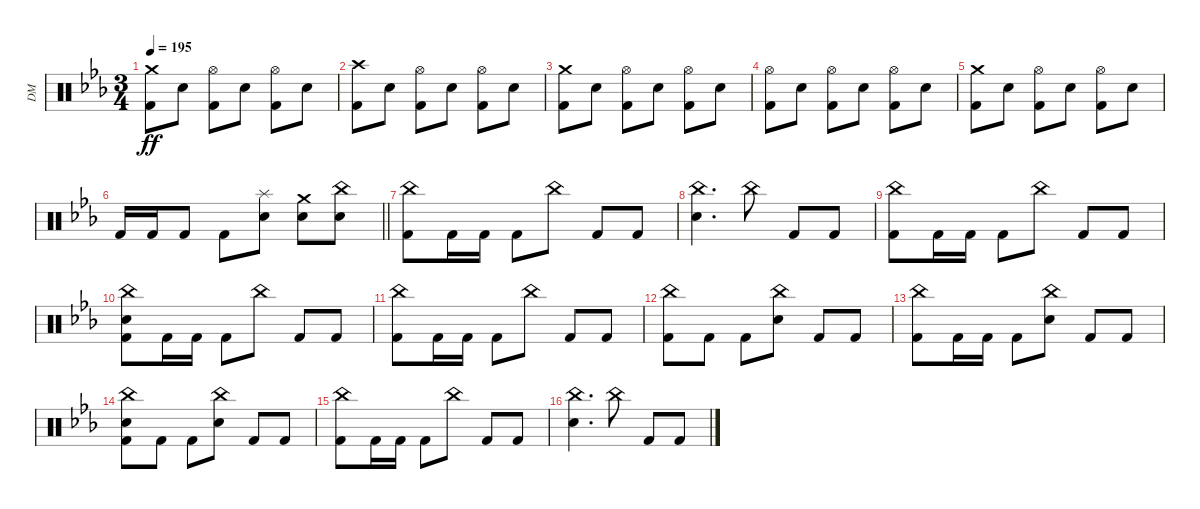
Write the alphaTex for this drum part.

\track ("DM" "DM") {instrument percussion}
\staff {score}
\articulation defaults
\ts (3 4)
\tempo 195
\clef neutral
\ks cminor
("Crash medium (hit)" "Kick (hit) 2").8{dy ff} "Electric Snare (hit)".8 ("Hi-Hat (open)" "Kick (hit) 2").8 "Electric Snare (hit)".8 ("Hi-Hat (open)" "Kick (hit) 2").8 "Electric Snare (hit)".8 |
("Crash high (hit)" "Kick (hit) 2").8 "Electric Snare (hit)".8 ("Hi-Hat (open)" "Kick (hit) 2").8 "Electric Snare (hit)".8 ("Hi-Hat (open)" "Kick (hit) 2").8 "Electric Snare (hit)".8 |
("Crash medium (hit)" "Kick (hit) 2").8 "Electric Snare (hit)".8 ("Hi-Hat (open)" "Kick (hit) 2").8 "Electric Snare (hit)".8 ("Hi-Hat (open)" "Kick (hit) 2").8 "Electric Snare (hit)".8 |
("Hi-Hat (open)" "Kick (hit) 2").8 "Electric Snare (hit)".8 ("Hi-Hat (open)" "Kick (hit) 2").8 "Electric Snare (hit)".8 ("Hi-Hat (open)" "Kick (hit) 2").8 "Electric Snare (hit)".8 |
("Crash medium (hit)" "Kick (hit) 2").8 "Electric Snare (hit)".8 ("Hi-Hat (open)" "Kick (hit) 2").8 "Electric Snare (hit)".8 ("Hi-Hat (open)" "Kick (hit) 2").8 "Electric Snare (hit)".8 |
\barLineRight lightlight "Kick (hit) 2".16 "Kick (hit) 2".16 "Kick (hit) 2".8 "Kick (hit) 2".8
("Splash (hit)" "Electric Snare (hit)").8 ("Crash medium (hit)" "Electric Snare (hit)").8 ("China (hit)" "Electric Snare (hit)").8 |
\section ("" "")
("China (hit)" "Kick (hit) 2").8 "Kick (hit) 2".16 "Kick (hit) 2".16 "Kick (hit) 2".8 "China (hit)".8 "Kick (hit) 2".8 "Kick (hit) 2".8 |
("China (hit)" "Electric Snare (hit)").4{d} "China (hit)".8 "Kick (hit) 2".8 "Kick (hit) 2".8 |
("China (hit)" "Kick (hit) 2").8 "Kick (hit) 2".16 "Kick (hit) 2".16 "Kick (hit) 2".8 "China (hit)".8 "Kick (hit) 2".8 "Kick (hit) 2".8 |
("China (hit)" "Electric Snare (hit)" "Kick (hit) 2").8 "Kick (hit) 2".16 "Kick (hit) 2".16 "Kick (hit) 2".8 "China (hit)".8 "Kick (hit) 2".8 "Kick (hit) 2".8 |
("China (hit)" "Kick (hit) 2").8 "Kick (hit) 2".16 "Kick (hit) 2".16 "Kick (hit) 2".8 "China (hit)".8 "Kick (hit) 2".8 "Kick (hit) 2".8 |
("China (hit)" "Kick (hit) 2").8 "Kick (hit) 2".8 "Kick (hit) 2".8 ("China (hit)" "Electric Snare (hit)").8 "Kick (hit) 2".8 "Kick (hit) 2".8 |
("China (hit)" "Kick (hit) 2").8 "Kick (hit) 2".16 "Kick (hit) 2".16 "Kick (hit) 2".8 ("China (hit)" "Electric Snare (hit)").8 "Kick (hit) 2".8 "Kick (hit) 2".8 |
("China (hit)" "Electric Snare (hit)" "Kick (hit) 2").8 "Kick (hit) 2".8 "Kick (hit) 2".8 ("China (hit)" "Electric Snare (hit)").8 "Kick (hit) 2".8 "Kick (hit) 2".8 |
("China (hit)" "Kick (hit) 2").8 "Kick (hit) 2".16 "Kick (hit) 2".16 "Kick (hit) 2".8 "China (hit)".8 "Kick (hit) 2".8 "Kick (hit) 2".8 |
("China (hit)" "Electric Snare (hit)").4{d} "China (hit)".8 "Kick (hit) 2".8 "Kick (hit) 2".8
